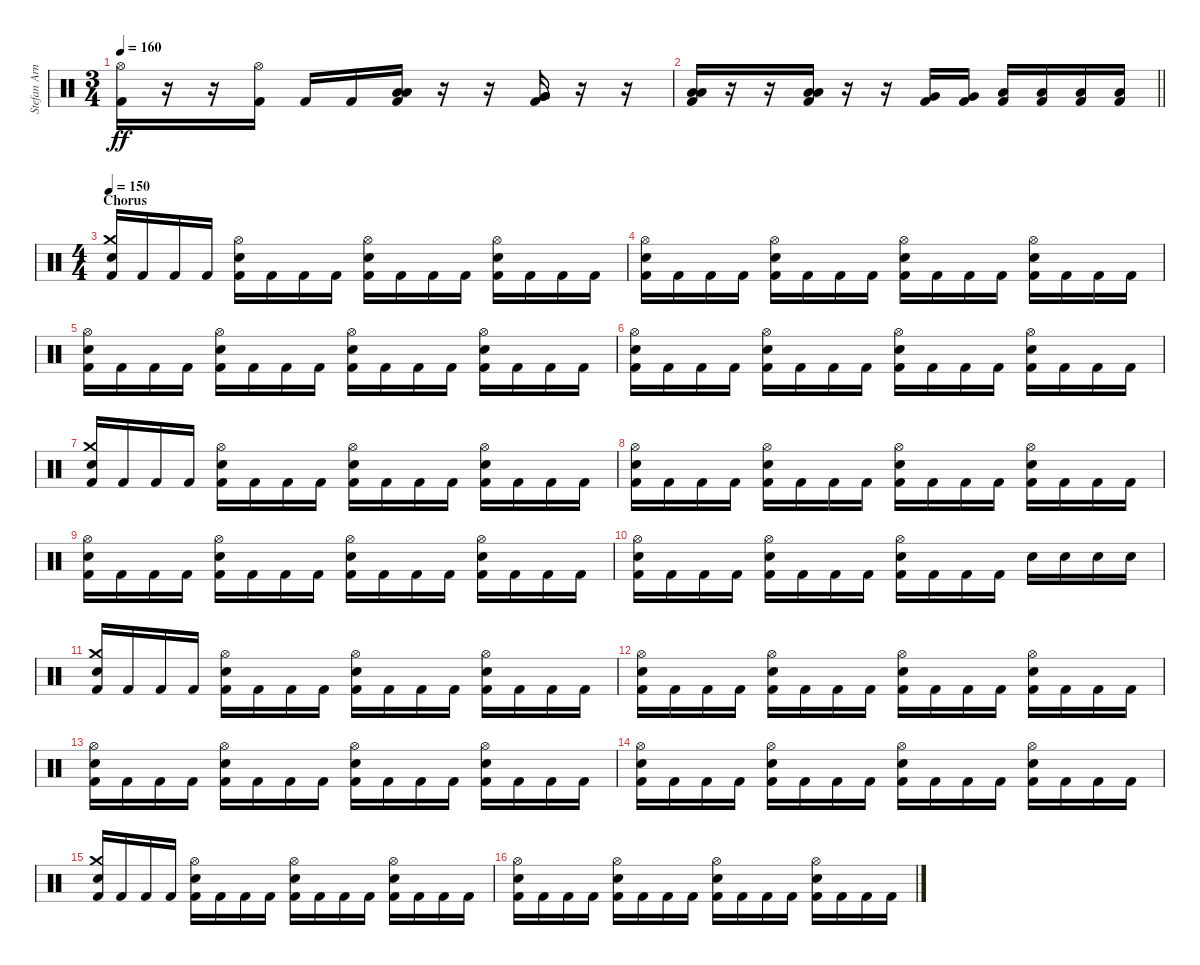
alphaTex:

\track ("Stefan Arnold" "Stefan Arn") {instrument percussion}
\staff {score}
\articulation defaults
\ts (3 4)
\tempo 160
\clef neutral
\ks c
("Hi-Hat (open)" "Kick (hit) 2").16{dy ff} r.16 r.16 ("Hi-Hat (open)" "Kick (hit) 2").16 "Kick (hit) 2".16 "Kick (hit) 2".16 ("Low Tom (hit)" "Low Tom (hit)" "Kick (hit) 2").16 r.16 r.16 ("Very Low Tom (hit)" "Very Low Tom (hit)" "Kick (hit) 2").16 r.16 r.16 |
\barLineRight lightlight
("Low Floor Tom (hit)" "Low Floor Tom (hit)" "Kick (hit) 2").16 r.16 r.16 ("Low Tom (hit)" "Low Tom (hit)" "Kick (hit) 2").16 r.16 r.16 ("Very Low Tom (hit)" "Kick (hit) 2").16 ("Very Low Tom (hit)" "Kick (hit) 2").16 ("Low Tom (hit)" "Kick (hit) 2").16 ("Low Tom (hit)" "Kick (hit) 2").16 ("Low Tom (hit)" "Kick (hit) 2").16 ("Low Floor Tom (hit)" "Kick (hit) 2").16 |
\ts (4 4)
\section ("" "Chorus")
\tempo 150
("Crash medium (hit)" "Electric Snare (hit)" "Kick (hit) 2").16 "Kick (hit) 2".16 "Kick (hit) 2".16 "Kick (hit) 2".16 ("Hi-Hat (open)" "Electric Snare (hit)" "Kick (hit) 2").16 "Kick (hit) 2".16 "Kick (hit) 2".16 "Kick (hit) 2".16 ("Hi-Hat (open)" "Electric Snare (hit)" "Kick (hit) 2").16 "Kick (hit) 2".16 "Kick (hit) 2".16 "Kick (hit) 2".16 ("Hi-Hat (open)" "Electric Snare (hit)" "Kick (hit) 2").16 "Kick (hit) 2".16 "Kick (hit) 2".16 "Kick (hit) 2".16 |
("Hi-Hat (open)" "Electric Snare (hit)" "Kick (hit) 2").16 "Kick (hit) 2".16 "Kick (hit) 2".16 "Kick (hit) 2".16 ("Hi-Hat (open)" "Electric Snare (hit)" "Kick (hit) 2").16 "Kick (hit) 2".16 "Kick (hit) 2".16 "Kick (hit) 2".16 ("Hi-Hat (open)" "Electric Snare (hit)" "Kick (hit) 2").16 "Kick (hit) 2".16 "Kick (hit) 2".16 "Kick (hit) 2".16 ("Hi-Hat (open)" "Electric Snare (hit)" "Kick (hit) 2").16 "Kick (hit) 2".16 "Kick (hit) 2".16 "Kick (hit) 2".16 |
("Hi-Hat (open)" "Electric Snare (hit)" "Kick (hit) 2").16 "Kick (hit) 2".16 "Kick (hit) 2".16 "Kick (hit) 2".16 ("Hi-Hat (open)" "Electric Snare (hit)" "Kick (hit) 2").16 "Kick (hit) 2".16 "Kick (hit) 2".16 "Kick (hit) 2".16 ("Hi-Hat (open)" "Electric Snare (hit)" "Kick (hit) 2").16 "Kick (hit) 2".16 "Kick (hit) 2".16 "Kick (hit) 2".16 ("Hi-Hat (open)" "Electric Snare (hit)" "Kick (hit) 2").16 "Kick (hit) 2".16 "Kick (hit) 2".16 "Kick (hit) 2".16 |
("Hi-Hat (open)" "Electric Snare (hit)" "Kick (hit) 2").16 "Kick (hit) 2".16 "Kick (hit) 2".16 "Kick (hit) 2".16 ("Hi-Hat (open)" "Electric Snare (hit)" "Kick (hit) 2").16 "Kick (hit) 2".16 "Kick (hit) 2".16 "Kick (hit) 2".16 ("Hi-Hat (open)" "Electric Snare (hit)" "Kick (hit) 2").16 "Kick (hit) 2".16 "Kick (hit) 2".16 "Kick (hit) 2".16 ("Hi-Hat (open)" "Electric Snare (hit)" "Kick (hit) 2").16 "Kick (hit) 2".16 "Kick (hit) 2".16 "Kick (hit) 2".16 |
("Crash medium (hit)" "Electric Snare (hit)" "Kick (hit) 2").16 "Kick (hit) 2".16 "Kick (hit) 2".16 "Kick (hit) 2".16 ("Hi-Hat (open)" "Electric Snare (hit)" "Kick (hit) 2").16 "Kick (hit) 2".16 "Kick (hit) 2".16 "Kick (hit) 2".16 ("Hi-Hat (open)" "Electric Snare (hit)" "Kick (hit) 2").16 "Kick (hit) 2".16 "Kick (hit) 2".16 "Kick (hit) 2".16 ("Hi-Hat (open)" "Electric Snare (hit)" "Kick (hit) 2").16 "Kick (hit) 2".16 "Kick (hit) 2".16 "Kick (hit) 2".16 |
("Hi-Hat (open)" "Electric Snare (hit)" "Kick (hit) 2").16 "Kick (hit) 2".16 "Kick (hit) 2".16 "Kick (hit) 2".16 ("Hi-Hat (open)" "Electric Snare (hit)" "Kick (hit) 2").16 "Kick (hit) 2".16 "Kick (hit) 2".16 "Kick (hit) 2".16 ("Hi-Hat (open)" "Electric Snare (hit)" "Kick (hit) 2").16 "Kick (hit) 2".16 "Kick (hit) 2".16 "Kick (hit) 2".16 ("Hi-Hat (open)" "Electric Snare (hit)" "Kick (hit) 2").16 "Kick (hit) 2".16 "Kick (hit) 2".16 "Kick (hit) 2".16 |
("Hi-Hat (open)" "Electric Snare (hit)" "Kick (hit) 2").16 "Kick (hit) 2".16 "Kick (hit) 2".16 "Kick (hit) 2".16 ("Hi-Hat (open)" "Electric Snare (hit)" "Kick (hit) 2").16 "Kick (hit) 2".16 "Kick (hit) 2".16 "Kick (hit) 2".16 ("Hi-Hat (open)" "Electric Snare (hit)" "Kick (hit) 2").16 "Kick (hit) 2".16 "Kick (hit) 2".16 "Kick (hit) 2".16 ("Hi-Hat (open)" "Electric Snare (hit)" "Kick (hit) 2").16 "Kick (hit) 2".16 "Kick (hit) 2".16 "Kick (hit) 2".16 |
("Hi-Hat (open)" "Electric Snare (hit)" "Kick (hit) 2").16 "Kick (hit) 2".16 "Kick (hit) 2".16 "Kick (hit) 2".16 ("Hi-Hat (open)" "Electric Snare (hit)" "Kick (hit) 2").16 "Kick (hit) 2".16 "Kick (hit) 2".16 "Kick (hit) 2".16 ("Hi-Hat (open)" "Electric Snare (hit)" "Kick (hit) 2").16 "Kick (hit) 2".16 "Kick (hit) 2".16 "Kick (hit) 2".16 "Electric Snare (hit)".16 "Electric Snare (hit)".16 "Electric Snare (hit)".16 "Electric Snare (hit)".16 |
("Crash medium (hit)" "Electric Snare (hit)" "Kick (hit) 2").16 "Kick (hit) 2".16 "Kick (hit) 2".16 "Kick (hit) 2".16 ("Hi-Hat (open)" "Electric Snare (hit)" "Kick (hit) 2").16 "Kick (hit) 2".16 "Kick (hit) 2".16 "Kick (hit) 2".16 ("Hi-Hat (open)" "Electric Snare (hit)" "Kick (hit) 2").16 "Kick (hit) 2".16 "Kick (hit) 2".16 "Kick (hit) 2".16 ("Hi-Hat (open)" "Electric Snare (hit)" "Kick (hit) 2").16 "Kick (hit) 2".16 "Kick (hit) 2".16 "Kick (hit) 2".16 |
("Hi-Hat (open)" "Electric Snare (hit)" "Kick (hit) 2").16 "Kick (hit) 2".16 "Kick (hit) 2".16 "Kick (hit) 2".16 ("Hi-Hat (open)" "Electric Snare (hit)" "Kick (hit) 2").16 "Kick (hit) 2".16 "Kick (hit) 2".16 "Kick (hit) 2".16 ("Hi-Hat (open)" "Electric Snare (hit)" "Kick (hit) 2").16 "Kick (hit) 2".16 "Kick (hit) 2".16 "Kick (hit) 2".16 ("Hi-Hat (open)" "Electric Snare (hit)" "Kick (hit) 2").16 "Kick (hit) 2".16 "Kick (hit) 2".16 "Kick (hit) 2".16 |
("Hi-Hat (open)" "Electric Snare (hit)" "Kick (hit) 2").16 "Kick (hit) 2".16 "Kick (hit) 2".16 "Kick (hit) 2".16 ("Hi-Hat (open)" "Electric Snare (hit)" "Kick (hit) 2").16 "Kick (hit) 2".16 "Kick (hit) 2".16 "Kick (hit) 2".16 ("Hi-Hat (open)" "Electric Snare (hit)" "Kick (hit) 2").16 "Kick (hit) 2".16 "Kick (hit) 2".16 "Kick (hit) 2".16 ("Hi-Hat (open)" "Electric Snare (hit)" "Kick (hit) 2").16 "Kick (hit) 2".16 "Kick (hit) 2".16 "Kick (hit) 2".16 |
("Hi-Hat (open)" "Electric Snare (hit)" "Kick (hit) 2").16 "Kick (hit) 2".16 "Kick (hit) 2".16 "Kick (hit) 2".16 ("Hi-Hat (open)" "Electric Snare (hit)" "Kick (hit) 2").16 "Kick (hit) 2".16 "Kick (hit) 2".16 "Kick (hit) 2".16 ("Hi-Hat (open)" "Electric Snare (hit)" "Kick (hit) 2").16 "Kick (hit) 2".16 "Kick (hit) 2".16 "Kick (hit) 2".16 ("Hi-Hat (open)" "Electric Snare (hit)" "Kick (hit) 2").16 "Kick (hit) 2".16 "Kick (hit) 2".16 "Kick (hit) 2".16 |
("Crash medium (hit)" "Electric Snare (hit)" "Kick (hit) 2").16 "Kick (hit) 2".16 "Kick (hit) 2".16 "Kick (hit) 2".16 ("Hi-Hat (open)" "Electric Snare (hit)" "Kick (hit) 2").16 "Kick (hit) 2".16 "Kick (hit) 2".16 "Kick (hit) 2".16 ("Hi-Hat (open)" "Electric Snare (hit)" "Kick (hit) 2").16 "Kick (hit) 2".16 "Kick (hit) 2".16 "Kick (hit) 2".16 ("Hi-Hat (open)" "Electric Snare (hit)" "Kick (hit) 2").16 "Kick (hit) 2".16 "Kick (hit) 2".16 "Kick (hit) 2".16 |
("Hi-Hat (open)" "Electric Snare (hit)" "Kick (hit) 2").16 "Kick (hit) 2".16 "Kick (hit) 2".16 "Kick (hit) 2".16 ("Hi-Hat (open)" "Electric Snare (hit)" "Kick (hit) 2").16 "Kick (hit) 2".16 "Kick (hit) 2".16 "Kick (hit) 2".16 ("Hi-Hat (open)" "Electric Snare (hit)" "Kick (hit) 2").16 "Kick (hit) 2".16 "Kick (hit) 2".16 "Kick (hit) 2".16 ("Hi-Hat (open)" "Electric Snare (hit)" "Kick (hit) 2").16 "Kick (hit) 2".16 "Kick (hit) 2".16 "Kick (hit) 2".16
